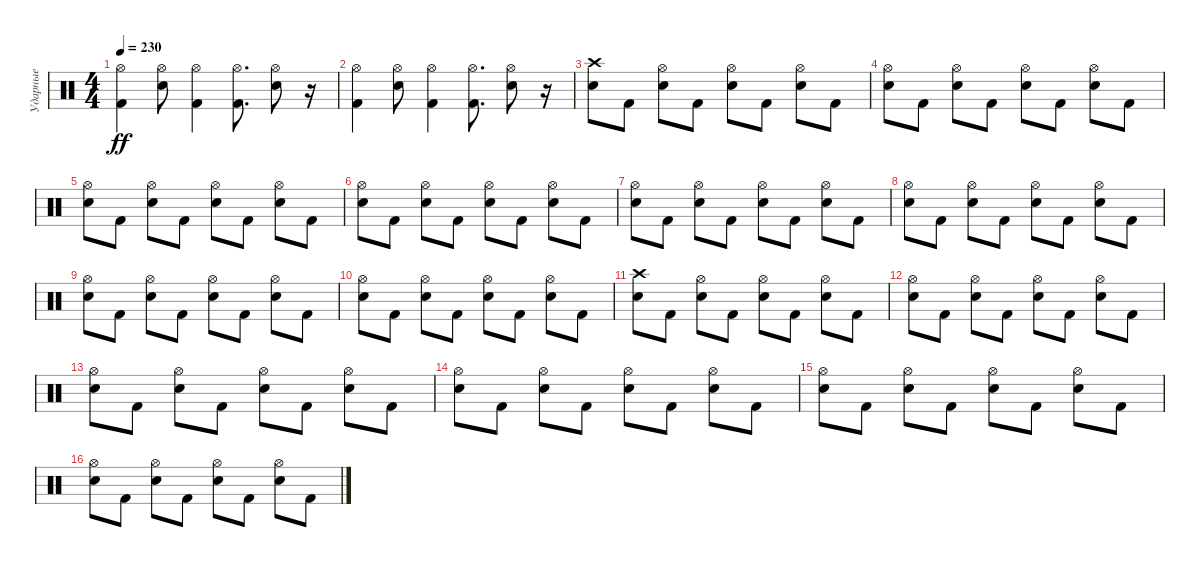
\track ("Ударные" "Ударные") {instrument percussion}
\staff {score}
\articulation defaults
\ts (4 4)
\tempo 230
\clef neutral
\ks c
("Kick (hit) 2" "Hi-Hat (open)").4{dy ff} ("Snare (hit) 2" "Hi-Hat (open)").8 ("Kick (hit) 2" "Hi-Hat (open)").4 ("Kick (hit) 2" "Hi-Hat (open)").8{d} ("Snare (hit) 2" "Hi-Hat (open)").8 r.16 |
("Kick (hit) 2" "Hi-Hat (open)").4 ("Snare (hit) 2" "Hi-Hat (open)").8 ("Kick (hit) 2" "Hi-Hat (open)").4 ("Kick (hit) 2" "Hi-Hat (open)").8{d} ("Snare (hit) 2" "Hi-Hat (open)").8 r.16 |
("Snare (hit) 2" "Crash high (hit)").8 "Kick (hit) 2".8 ("Snare (hit) 2" "Hi-Hat (open)").8 "Kick (hit) 2".8 ("Snare (hit) 2" "Hi-Hat (open)").8 "Kick (hit) 2".8 ("Snare (hit) 2" "Hi-Hat (open)").8 "Kick (hit) 2".8 |
("Snare (hit) 2" "Hi-Hat (open)").8 "Kick (hit) 2".8 ("Snare (hit) 2" "Hi-Hat (open)").8 "Kick (hit) 2".8 ("Snare (hit) 2" "Hi-Hat (open)").8 "Kick (hit) 2".8 ("Snare (hit) 2" "Hi-Hat (open)").8 "Kick (hit) 2".8 |
("Snare (hit) 2" "Hi-Hat (open)").8 "Kick (hit) 2".8 ("Snare (hit) 2" "Hi-Hat (open)").8 "Kick (hit) 2".8 ("Snare (hit) 2" "Hi-Hat (open)").8 "Kick (hit) 2".8 ("Snare (hit) 2" "Hi-Hat (open)").8 "Kick (hit) 2".8 |
("Snare (hit) 2" "Hi-Hat (open)").8 "Kick (hit) 2".8 ("Snare (hit) 2" "Hi-Hat (open)").8 "Kick (hit) 2".8 ("Snare (hit) 2" "Hi-Hat (open)").8 "Kick (hit) 2".8 ("Snare (hit) 2" "Hi-Hat (open)").8 "Kick (hit) 2".8 |
("Snare (hit) 2" "Hi-Hat (open)").8 "Kick (hit) 2".8 ("Snare (hit) 2" "Hi-Hat (open)").8 "Kick (hit) 2".8 ("Snare (hit) 2" "Hi-Hat (open)").8 "Kick (hit) 2".8 ("Snare (hit) 2" "Hi-Hat (open)").8 "Kick (hit) 2".8 |
("Snare (hit) 2" "Hi-Hat (open)").8 "Kick (hit) 2".8 ("Snare (hit) 2" "Hi-Hat (open)").8 "Kick (hit) 2".8 ("Snare (hit) 2" "Hi-Hat (open)").8 "Kick (hit) 2".8 ("Snare (hit) 2" "Hi-Hat (open)").8 "Kick (hit) 2".8 |
("Snare (hit) 2" "Hi-Hat (open)").8 "Kick (hit) 2".8 ("Snare (hit) 2" "Hi-Hat (open)").8 "Kick (hit) 2".8 ("Snare (hit) 2" "Hi-Hat (open)").8 "Kick (hit) 2".8 ("Snare (hit) 2" "Hi-Hat (open)").8 "Kick (hit) 2".8 |
("Snare (hit) 2" "Hi-Hat (open)").8 "Kick (hit) 2".8 ("Snare (hit) 2" "Hi-Hat (open)").8 "Kick (hit) 2".8 ("Snare (hit) 2" "Hi-Hat (open)").8 "Kick (hit) 2".8 ("Snare (hit) 2" "Hi-Hat (open)").8 "Kick (hit) 2".8 |
("Snare (hit) 2" "Crash high (hit)").8 "Kick (hit) 2".8 ("Snare (hit) 2" "Hi-Hat (open)").8 "Kick (hit) 2".8 ("Snare (hit) 2" "Hi-Hat (open)").8 "Kick (hit) 2".8 ("Snare (hit) 2" "Hi-Hat (open)").8 "Kick (hit) 2".8 |
("Snare (hit) 2" "Hi-Hat (open)").8 "Kick (hit) 2".8 ("Snare (hit) 2" "Hi-Hat (open)").8 "Kick (hit) 2".8 ("Snare (hit) 2" "Hi-Hat (open)").8 "Kick (hit) 2".8 ("Snare (hit) 2" "Hi-Hat (open)").8 "Kick (hit) 2".8 |
("Snare (hit) 2" "Hi-Hat (open)").8 "Kick (hit) 2".8 ("Snare (hit) 2" "Hi-Hat (open)").8 "Kick (hit) 2".8 ("Snare (hit) 2" "Hi-Hat (open)").8 "Kick (hit) 2".8 ("Snare (hit) 2" "Hi-Hat (open)").8 "Kick (hit) 2".8 |
("Snare (hit) 2" "Hi-Hat (open)").8 "Kick (hit) 2".8 ("Snare (hit) 2" "Hi-Hat (open)").8 "Kick (hit) 2".8 ("Snare (hit) 2" "Hi-Hat (open)").8 "Kick (hit) 2".8 ("Snare (hit) 2" "Hi-Hat (open)").8 "Kick (hit) 2".8 |
("Snare (hit) 2" "Hi-Hat (open)").8 "Kick (hit) 2".8 ("Snare (hit) 2" "Hi-Hat (open)").8 "Kick (hit) 2".8 ("Snare (hit) 2" "Hi-Hat (open)").8 "Kick (hit) 2".8 ("Snare (hit) 2" "Hi-Hat (open)").8 "Kick (hit) 2".8 |
("Snare (hit) 2" "Hi-Hat (open)").8 "Kick (hit) 2".8 ("Snare (hit) 2" "Hi-Hat (open)").8 "Kick (hit) 2".8 ("Snare (hit) 2" "Hi-Hat (open)").8 "Kick (hit) 2".8 ("Snare (hit) 2" "Hi-Hat (open)").8 "Kick (hit) 2".8
